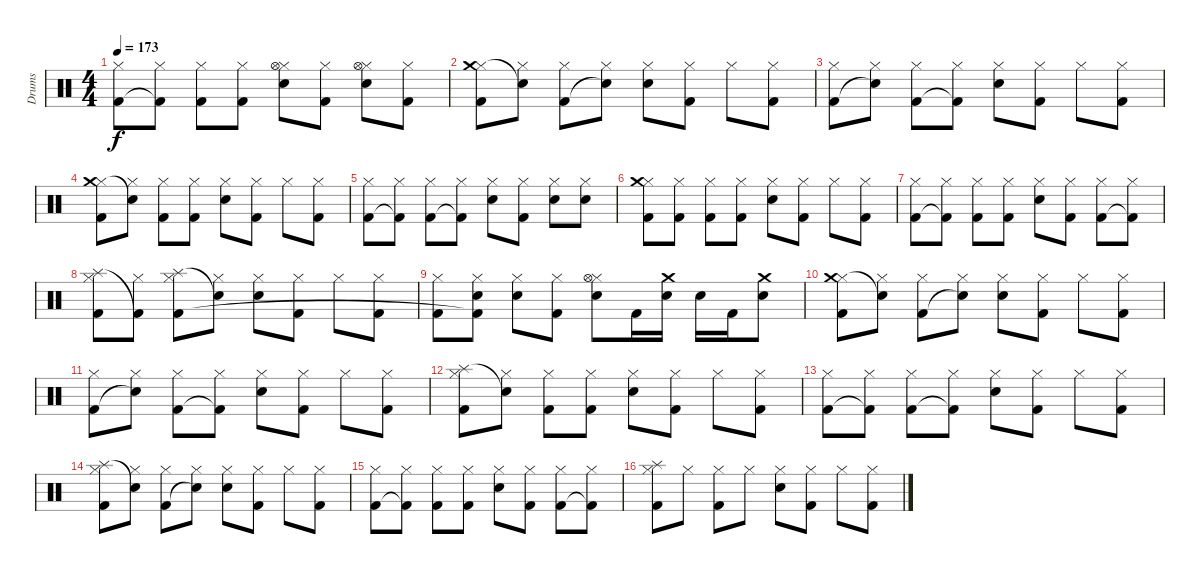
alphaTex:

\track ("Drums" "Drums") {instrument percussion}
\staff {score}
\articulation defaults
\ts (4 4)
\tempo 173
\clef neutral
\ks c
("Hi-Hat (closed)" "Kick (hit) 2").8{dy f} ("Hi-Hat (closed)" "Kick (hit) 2"{t}).8 ("Hi-Hat (closed)" "Kick (hit) 2").8 ("Hi-Hat (closed)" "Kick (hit) 2").8 ("Hi-Hat (closed)" "Hi-Hat (open)" "Electric Snare (hit)").8 ("Hi-Hat (closed)" "Kick (hit) 2").8 ("Hi-Hat (closed)" "Hi-Hat (open)" "Electric Snare (hit)").8 ("Hi-Hat (closed)" "Kick (hit) 2").8 |
("Hi-Hat (closed)" "Crash medium (hit)" "Kick (hit) 2").8 ("Hi-Hat (closed)" "Snare (hit)"{t}).8 ("Hi-Hat (closed)" "Kick (hit) 2").8 ("Hi-Hat (closed)" "Snare (hit)"{t}).8 ("Hi-Hat (closed)" "Electric Snare (hit)").8 ("Hi-Hat (closed)" "Kick (hit) 2").8 "Hi-Hat (closed)".8 ("Hi-Hat (closed)" "Kick (hit) 2").8 |
("Hi-Hat (closed)" "Kick (hit) 2").8 ("Hi-Hat (closed)" "Snare (hit)"{t}).8 ("Hi-Hat (closed)" "Kick (hit) 2").8 ("Hi-Hat (closed)" "Kick (hit) 2"{t}).8 ("Hi-Hat (closed)" "Electric Snare (hit)").8 ("Hi-Hat (closed)" "Kick (hit) 2").8 "Hi-Hat (closed)".8 ("Hi-Hat (closed)" "Kick (hit) 2").8 |
("Hi-Hat (closed)" "Crash medium (hit)" "Kick (hit) 2").8 ("Hi-Hat (closed)" "Snare (hit)"{t}).8 ("Hi-Hat (closed)" "Kick (hit) 2").8 ("Hi-Hat (closed)" "Kick (hit) 2").8 ("Hi-Hat (closed)" "Electric Snare (hit)").8 ("Hi-Hat (closed)" "Kick (hit) 2").8 "Hi-Hat (closed)".8 ("Hi-Hat (closed)" "Kick (hit) 2").8 |
("Hi-Hat (closed)" "Kick (hit) 2").8 ("Hi-Hat (closed)" "Kick (hit) 2"{t}).8 ("Hi-Hat (closed)" "Kick (hit) 2").8 ("Hi-Hat (closed)" "Kick (hit) 2"{t}).8 ("Hi-Hat (closed)" "Electric Snare (hit)").8 ("Hi-Hat (closed)" "Kick (hit) 2").8 ("Hi-Hat (closed)" "Electric Snare (hit)").8 ("Hi-Hat (closed)" "Electric Snare (hit)").8 |
("Hi-Hat (closed)" "Crash medium (hit)" "Kick (hit) 2").8 ("Hi-Hat (closed)" "Kick (hit) 2").8 ("Hi-Hat (closed)" "Kick (hit) 2").8 ("Hi-Hat (closed)" "Kick (hit) 2").8 ("Hi-Hat (closed)" "Electric Snare (hit)").8 ("Hi-Hat (closed)" "Kick (hit) 2").8 "Hi-Hat (closed)".8 ("Hi-Hat (closed)" "Kick (hit) 2").8 |
("Hi-Hat (closed)" "Kick (hit) 2").8 ("Hi-Hat (closed)" "Kick (hit) 2"{t}).8 ("Hi-Hat (closed)" "Kick (hit) 2").8 ("Hi-Hat (closed)" "Kick (hit) 2").8 ("Hi-Hat (closed)" "Electric Snare (hit)").8 ("Hi-Hat (closed)" "Kick (hit) 2").8 ("Hi-Hat (closed)" "Kick (hit) 2").8 ("Hi-Hat (closed)" "Kick (hit) 2"{t}).8 |
("Hi-Hat (closed)" "Splash (hit)" "Kick (hit) 2").8 ("Hi-Hat (closed)" "Kick (hit) 2"{t}).8 ("Hi-Hat (closed)" "Splash (hit)" "Kick (hit) 2").8 ("Hi-Hat (closed)" "Snare (hit)"{t}).8 ("Hi-Hat (closed)" "Electric Snare (hit)").8 ("Hi-Hat (closed)" "Kick (hit) 2").8 "Hi-Hat (closed)".8 ("Hi-Hat (closed)" "Kick (hit) 2").8 |
("Hi-Hat (closed)" "Kick (hit) 2").8 ("Hi-Hat (closed)" "Electric Snare (hit)" "Kick (hit) 2"{t}).8 ("Hi-Hat (closed)" "Electric Snare (hit)").8 ("Hi-Hat (closed)" "Kick (hit) 2").8 ("Hi-Hat (closed)" "Hi-Hat (open)" "Electric Snare (hit)").8 "Kick (hit) 2".16 ("Crash medium (hit)" "Electric Snare (hit)").16 "Electric Snare (hit)".16 "Kick (hit) 2".16 ("Crash medium (hit)" "Electric Snare (hit)").8 |
("Hi-Hat (closed)" "Crash medium (hit)" "Kick (hit) 2").8 ("Hi-Hat (closed)" "Snare (hit)"{t}).8 ("Hi-Hat (closed)" "Kick (hit) 2").8 ("Hi-Hat (closed)" "Snare (hit)"{t}).8 ("Hi-Hat (closed)" "Electric Snare (hit)").8 ("Hi-Hat (closed)" "Kick (hit) 2").8 "Hi-Hat (closed)".8 ("Hi-Hat (closed)" "Kick (hit) 2").8 |
("Hi-Hat (closed)" "Kick (hit) 2").8 ("Hi-Hat (closed)" "Snare (hit)"{t}).8 ("Hi-Hat (closed)" "Kick (hit) 2").8 ("Hi-Hat (closed)" "Kick (hit) 2"{t}).8 ("Hi-Hat (closed)" "Electric Snare (hit)").8 ("Hi-Hat (closed)" "Kick (hit) 2").8 "Hi-Hat (closed)".8 ("Hi-Hat (closed)" "Kick (hit) 2").8 |
("Hi-Hat (closed)" "Splash (hit)" "Kick (hit) 2").8 ("Hi-Hat (closed)" "Snare (hit)"{t}).8 ("Hi-Hat (closed)" "Kick (hit) 2").8 ("Hi-Hat (closed)" "Kick (hit) 2").8 ("Hi-Hat (closed)" "Electric Snare (hit)").8 ("Hi-Hat (closed)" "Kick (hit) 2").8 "Hi-Hat (closed)".8 ("Hi-Hat (closed)" "Kick (hit) 2").8 |
("Hi-Hat (closed)" "Kick (hit) 2").8 ("Hi-Hat (closed)" "Kick (hit) 2"{t}).8 ("Hi-Hat (closed)" "Kick (hit) 2").8 ("Hi-Hat (closed)" "Kick (hit) 2"{t}).8 ("Hi-Hat (closed)" "Electric Snare (hit)").8 ("Hi-Hat (closed)" "Kick (hit) 2").8 "Hi-Hat (closed)".8 ("Hi-Hat (closed)" "Kick (hit) 2").8 |
("Hi-Hat (closed)" "Splash (hit)" "Kick (hit) 2").8 ("Hi-Hat (closed)" "Snare (hit)"{t}).8 ("Hi-Hat (closed)" "Kick (hit) 2").8 ("Hi-Hat (closed)" "Snare (hit)"{t}).8 ("Hi-Hat (closed)" "Electric Snare (hit)").8 ("Hi-Hat (closed)" "Kick (hit) 2").8 "Hi-Hat (closed)".8 ("Hi-Hat (closed)" "Kick (hit) 2").8 |
("Hi-Hat (closed)" "Kick (hit) 2").8 ("Hi-Hat (closed)" "Kick (hit) 2"{t}).8 ("Hi-Hat (closed)" "Kick (hit) 2").8 ("Hi-Hat (closed)" "Kick (hit) 2").8 ("Hi-Hat (closed)" "Electric Snare (hit)").8 ("Hi-Hat (closed)" "Kick (hit) 2").8 ("Hi-Hat (closed)" "Kick (hit) 2").8 ("Hi-Hat (closed)" "Kick (hit) 2"{t}).8 |
("Hi-Hat (closed)" "Splash (hit)" "Kick (hit) 2").8 "Hi-Hat (closed)".8 ("Hi-Hat (closed)" "Kick (hit) 2").8 "Hi-Hat (closed)".8 ("Hi-Hat (closed)" "Electric Snare (hit)").8 ("Hi-Hat (closed)" "Kick (hit) 2").8 "Hi-Hat (closed)".8 ("Hi-Hat (closed)" "Kick (hit) 2").8
